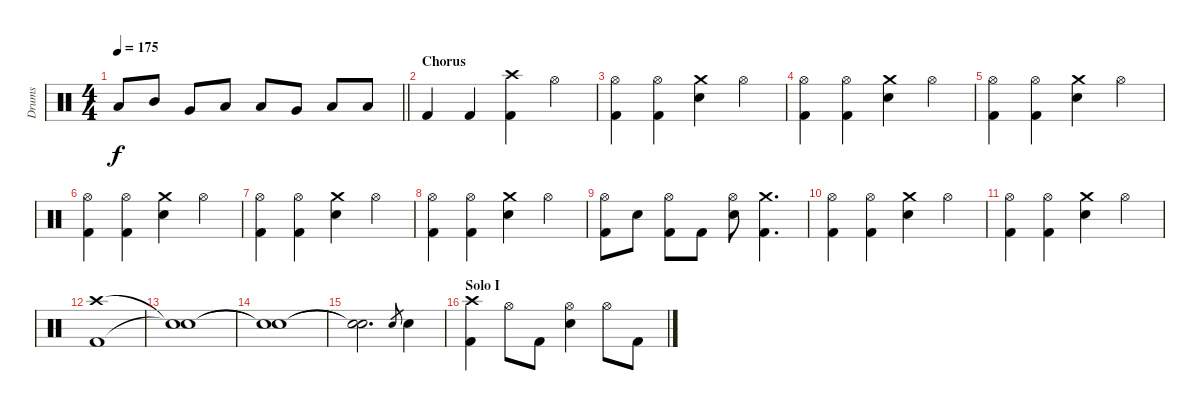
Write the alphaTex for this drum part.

\track ("Drums" "Drums") {instrument percussion}
\staff {score}
\articulation defaults
\ts (4 4)
\tempo 175
\clef neutral
\barLineRight lightlight
\ks c "Low Tom (hit)".8{dy f} "Mid Tom (hit)".8 "Very Low Tom (hit)".8 "Low Tom (hit)".8 "Low Floor Tom (hit)".8 "Very Low Tom (hit)".8 "Low Floor Tom (hit)".8 "Low Floor Tom (hit)".8
|
\section ("" "Chorus")
"Kick (hit) 2".4 "Kick (hit) 2".4 ("Crash high (hit)" "Kick (hit) 2").4 "Hi-Hat (open)".4 |
("Hi-Hat (open)" "Kick (hit) 2").4 ("Hi-Hat (open)" "Kick (hit) 2").4 ("Crash medium (hit)" "Snare (hit) 2").4 "Hi-Hat (open)".4 |
("Hi-Hat (open)" "Kick (hit) 2").4 ("Hi-Hat (open)" "Kick (hit) 2").4 ("Crash medium (hit)" "Snare (hit) 2").4 "Hi-Hat (open)".4 |
("Hi-Hat (open)" "Kick (hit) 2").4 ("Hi-Hat (open)" "Kick (hit) 2").4 ("Crash medium (hit)" "Snare (hit) 2").4 "Hi-Hat (open)".4 |
("Hi-Hat (open)" "Kick (hit) 2").4 ("Hi-Hat (open)" "Kick (hit) 2").4 ("Crash medium (hit)" "Snare (hit) 2").4 "Hi-Hat (open)".4 |
("Hi-Hat (open)" "Kick (hit) 2").4 ("Hi-Hat (open)" "Kick (hit) 2").4 ("Crash medium (hit)" "Snare (hit) 2").4 "Hi-Hat (open)".4 |
("Hi-Hat (open)" "Kick (hit) 2").4 ("Hi-Hat (open)" "Kick (hit) 2").4 ("Crash medium (hit)" "Snare (hit) 2").4 "Hi-Hat (open)".4 |
("Hi-Hat (open)" "Kick (hit) 2").8 "Snare (hit) 2".8 ("Hi-Hat (open)" "Kick (hit) 2").8 "Kick (hit) 2".8 ("Hi-Hat (open)" "Snare (hit) 2").8 ("Crash medium (hit)" "Kick (hit) 2").4{d} |
("Hi-Hat (open)" "Kick (hit) 2").4 ("Hi-Hat (open)" "Kick (hit) 2").4 ("Crash medium (hit)" "Snare (hit) 2").4 "Hi-Hat (open)".4 |
("Hi-Hat (open)" "Kick (hit) 2").4 ("Hi-Hat (open)" "Kick (hit) 2").4 ("Crash medium (hit)" "Snare (hit) 2").4 "Hi-Hat (open)".4 |
("Crash high (hit)" "Kick (hit) 2").1 |
("Snare (hit)"{t} "Snare (hit)"{t}).1 |
("Snare (hit)"{t} "Snare (hit)"{t}).1 |
("Snare (hit)"{t} "Snare (hit)"{t}).2{d} "Snare (hit) 2".8{gr} "Snare (hit) 2".4 |
\section ("" "Solo I")
("Crash high (hit)" "Kick (hit) 2").4 "Hi-Hat (open)".8 "Kick (hit) 2".8 ("Hi-Hat (open)" "Snare (hit) 2").4 "Hi-Hat (open)".8 "Kick (hit) 2".8
